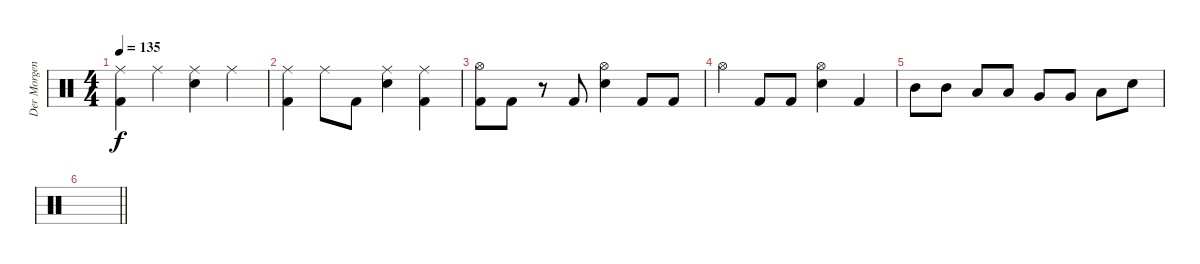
\track ("Der Morgenstern" "Der Morgen") {instrument percussion}
\staff {score}
\articulation defaults
\ts (4 4)
\tempo 135
\clef neutral
\ks c
("Ride (middle)" "Kick (hit) 2").4{dy f} "Ride (middle)".4 ("Ride (middle)" "Electric Snare (hit)").4 "Ride (middle)".4 |
("Ride (middle)" "Kick (hit) 2").4 "Ride (middle)".8 "Kick (hit) 2".8 ("Ride (middle)" "Electric Snare (hit)").4 ("Ride (middle)" "Kick (hit) 2").4 |
("Hi-Hat (open)" "Kick (hit) 2").8 "Kick (hit) 2".8 r.8 "Kick (hit) 2".8 ("Hi-Hat (open)" "Electric Snare (hit)").4 "Kick (hit) 2".8 "Kick (hit) 2".8 |
"Hi-Hat (open)".4 "Kick (hit) 2".8 "Kick (hit) 2".8 ("Hi-Hat (open)" "Electric Snare (hit)").4 "Kick (hit) 2".4 |
"Mid Tom (hit)".8 "Mid Tom (hit)".8 "Low Tom (hit)".8 "Low Tom (hit)".8 "Very Low Tom (hit)".8 "Very Low Tom (hit)".8 "Low Floor Tom (hit)".8 "Electric Snare (hit)".8 |
\barLineRight lightlight
